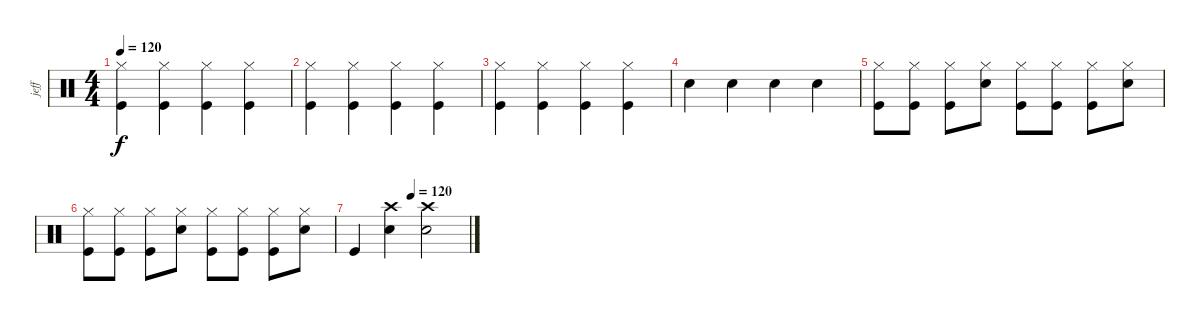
\track ("jeff" "jeff") {instrument percussion}
\staff {score}
\articulation defaults
\ts (4 4)
\tempo 120
\clef neutral
\ks c
("Kick (hit)" "Hi-Hat (closed)").4{dy f} ("Kick (hit)" "Hi-Hat (closed)").4 ("Kick (hit)" "Hi-Hat (closed)").4 ("Kick (hit)" "Hi-Hat (closed)").4 |
("Kick (hit)" "Hi-Hat (closed)").4 ("Kick (hit)" "Hi-Hat (closed)").4 ("Kick (hit)" "Hi-Hat (closed)").4 ("Kick (hit)" "Hi-Hat (closed)").4 |
("Kick (hit)" "Hi-Hat (closed)").4 ("Kick (hit)" "Hi-Hat (closed)").4 ("Kick (hit)" "Hi-Hat (closed)").4 ("Hi-Hat (closed)" "Kick (hit)").4 |
"Snare (hit) 2".4 "Snare (hit) 2".4 "Snare (hit) 2".4 "Snare (hit) 2".4 |
("Kick (hit)" "Hi-Hat (closed)").8 ("Kick (hit)" "Hi-Hat (closed)").8 ("Kick (hit)" "Hi-Hat (closed)").8 ("Hi-Hat (closed)" "Snare (hit) 2").8 ("Kick (hit)" "Hi-Hat (closed)").8 ("Kick (hit)" "Hi-Hat (closed)").8 ("Kick (hit)" "Hi-Hat (closed)").8 ("Hi-Hat (closed)" "Snare (hit) 2").8 |
("Kick (hit)" "Hi-Hat (closed)").8 ("Kick (hit)" "Hi-Hat (closed)").8 ("Kick (hit)" "Hi-Hat (closed)").8 ("Hi-Hat (closed)" "Snare (hit) 2").8 ("Kick (hit)" "Hi-Hat (closed)").8 ("Kick (hit)" "Hi-Hat (closed)").8 ("Kick (hit)" "Hi-Hat (closed)").8 ("Hi-Hat (closed)" "Snare (hit) 2").8 |
\tempo (120 0.5)
"Kick (hit)".4 ("Snare (hit) 2" "Crash high (hit)").4 ("Snare (hit) 2" "Crash high (hit)").2
